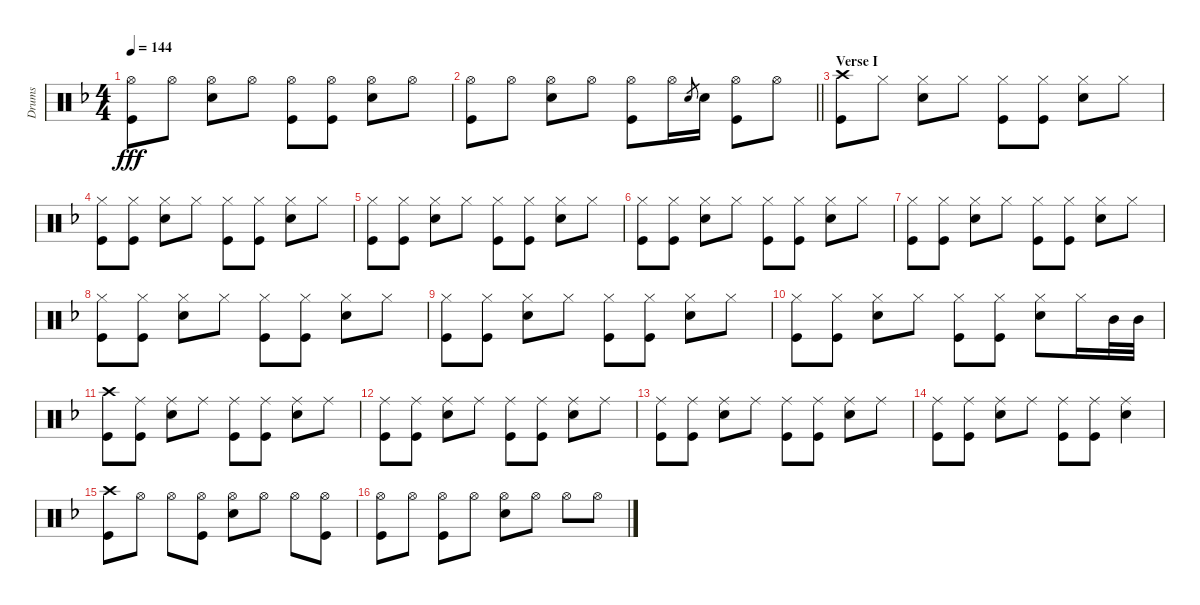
\track ("Drums" "Drums") {instrument percussion}
\staff {score}
\articulation defaults
\ts (4 4)
\tempo 144
\clef neutral
\ks f
("Hi-Hat (open)" "Kick (hit)").8{dy fff} "Hi-Hat (open)".8 ("Hi-Hat (open)" "Snare (hit) 2").8 "Hi-Hat (open)".8 ("Hi-Hat (open)" "Kick (hit)").8 ("Hi-Hat (open)" "Kick (hit)").8 ("Hi-Hat (open)" "Snare (hit) 2").8 "Hi-Hat (open)".8 |
\barLineRight lightlight
("Hi-Hat (open)" "Kick (hit)").8 "Hi-Hat (open)".8 ("Hi-Hat (open)" "Snare (hit) 2").8 "Hi-Hat (open)".8 ("Hi-Hat (open)" "Kick (hit)").8 "Hi-Hat (open)".16 "Snare (hit) 2".8{gr} "Snare (hit) 2".16 ("Hi-Hat (open)" "Kick (hit)").8 "Hi-Hat (open)".8 |
\section ("" "Verse I")
("Crash high (hit)" "Kick (hit)").8 "Hi-Hat (closed)".8 ("Hi-Hat (closed)" "Snare (hit) 2").8 "Hi-Hat (closed)".8 ("Hi-Hat (closed)" "Kick (hit)").8 ("Hi-Hat (closed)" "Kick (hit)").8 ("Hi-Hat (closed)" "Snare (hit) 2").8 "Hi-Hat (closed)".8 |
("Hi-Hat (closed)" "Kick (hit)").8 ("Hi-Hat (closed)" "Kick (hit)").8 ("Hi-Hat (closed)" "Snare (hit) 2").8 "Hi-Hat (closed)".8 ("Hi-Hat (closed)" "Kick (hit)").8 ("Hi-Hat (closed)" "Kick (hit)").8 ("Hi-Hat (closed)" "Snare (hit) 2").8 "Hi-Hat (closed)".8 |
("Hi-Hat (closed)" "Kick (hit)").8 ("Hi-Hat (closed)" "Kick (hit)").8 ("Hi-Hat (closed)" "Snare (hit) 2").8 "Hi-Hat (closed)".8 ("Hi-Hat (closed)" "Kick (hit)").8 ("Hi-Hat (closed)" "Kick (hit)").8 ("Hi-Hat (closed)" "Snare (hit) 2").8 "Hi-Hat (closed)".8 |
("Hi-Hat (closed)" "Kick (hit)").8 ("Hi-Hat (closed)" "Kick (hit)").8 ("Hi-Hat (closed)" "Snare (hit) 2").8 "Hi-Hat (closed)".8 ("Hi-Hat (closed)" "Kick (hit)").8 ("Hi-Hat (closed)" "Kick (hit)").8 ("Hi-Hat (closed)" "Snare (hit) 2").8 "Hi-Hat (closed)".8 |
("Hi-Hat (closed)" "Kick (hit)").8 ("Hi-Hat (closed)" "Kick (hit)").8 ("Hi-Hat (closed)" "Snare (hit) 2").8 "Hi-Hat (closed)".8 ("Hi-Hat (closed)" "Kick (hit)").8 ("Hi-Hat (closed)" "Kick (hit)").8 ("Hi-Hat (closed)" "Snare (hit) 2").8 "Hi-Hat (closed)".8 |
("Hi-Hat (closed)" "Kick (hit)").8 ("Hi-Hat (closed)" "Kick (hit)").8 ("Hi-Hat (closed)" "Snare (hit) 2").8 "Hi-Hat (closed)".8 ("Hi-Hat (closed)" "Kick (hit)").8 ("Hi-Hat (closed)" "Kick (hit)").8 ("Hi-Hat (closed)" "Snare (hit) 2").8 "Hi-Hat (closed)".8 |
("Hi-Hat (closed)" "Kick (hit)").8 ("Hi-Hat (closed)" "Kick (hit)").8 ("Hi-Hat (closed)" "Snare (hit) 2").8 "Hi-Hat (closed)".8 ("Hi-Hat (closed)" "Kick (hit)").8 ("Hi-Hat (closed)" "Kick (hit)").8 ("Hi-Hat (closed)" "Snare (hit) 2").8 "Hi-Hat (closed)".8 |
("Hi-Hat (closed)" "Kick (hit)").8 ("Hi-Hat (closed)" "Kick (hit)").8 ("Hi-Hat (closed)" "Snare (hit) 2").8 "Hi-Hat (closed)".8 ("Hi-Hat (closed)" "Kick (hit)").8 ("Hi-Hat (closed)" "Kick (hit)").8 ("Hi-Hat (closed)" "Snare (hit) 2").8 "Hi-Hat (closed)".16 "Mid Tom (hit)".32 "Mid Tom (hit)".32 |
("Crash high (hit)" "Kick (hit)").8 ("Ride (middle)" "Kick (hit)").8 ("Ride (middle)" "Snare (hit) 2").8 "Ride (middle)".8 ("Ride (middle)" "Kick (hit)").8 ("Ride (middle)" "Kick (hit)").8 ("Ride (middle)" "Snare (hit) 2").8 "Ride (middle)".8 |
("Ride (middle)" "Kick (hit)").8 ("Ride (middle)" "Kick (hit)").8 ("Ride (middle)" "Snare (hit) 2").8 "Ride (middle)".8 ("Ride (middle)" "Kick (hit)").8 ("Ride (middle)" "Kick (hit)").8 ("Ride (middle)" "Snare (hit) 2").8 "Ride (middle)".8 |
("Ride (middle)" "Kick (hit)").8 ("Ride (middle)" "Kick (hit)").8 ("Ride (middle)" "Snare (hit) 2").8 "Ride (middle)".8 ("Ride (middle)" "Kick (hit)").8 ("Ride (middle)" "Kick (hit)").8 ("Ride (middle)" "Snare (hit) 2").8 "Ride (middle)".8 |
("Ride (middle)" "Kick (hit)").8 ("Ride (middle)" "Kick (hit)").8 ("Ride (middle)" "Snare (hit) 2").8 "Ride (middle)".8 ("Ride (middle)" "Kick (hit)").8 ("Ride (middle)" "Kick (hit)").8 ("Ride (middle)" "Snare (hit) 2").4 |
("Crash high (hit)" "Kick (hit)").8 "Hi-Hat (open)".8 "Hi-Hat (open)".8 ("Hi-Hat (open)" "Kick (hit)").8 ("Hi-Hat (open)" "Snare (hit) 2").8 "Hi-Hat (open)".8 "Hi-Hat (open)".8 ("Hi-Hat (open)" "Kick (hit)").8 |
("Hi-Hat (open)" "Kick (hit)").8 "Hi-Hat (open)".8 ("Hi-Hat (open)" "Kick (hit)").8 "Hi-Hat (open)".8 ("Hi-Hat (open)" "Snare (hit) 2").8 "Hi-Hat (open)".8 "Hi-Hat (open)".8 "Hi-Hat (open)".8
